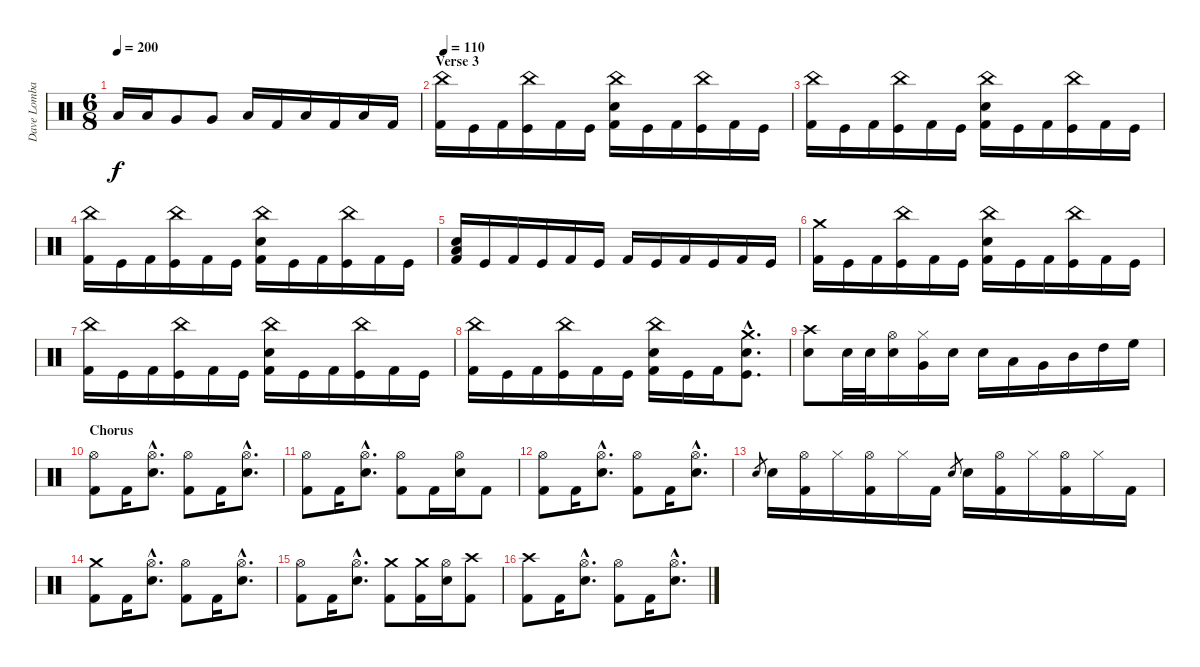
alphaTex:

\track ("Dave Lombardo (drums)" "Dave Lomba") {instrument percussion}
\staff {score}
\articulation defaults
\ts (6 8)
\tempo 200
\clef neutral
\ks c "Low Tom (hit)".16{dy f} "Low Tom (hit)".16 "Very Low Tom (hit)".8 "Very Low Tom (hit)".8 "Low Floor Tom (hit)".16 "Kick (hit) 2".16 "Low Floor Tom (hit)".16 "Kick (hit) 2".16 "Low Floor Tom (hit)".16 "Kick (hit) 2".16
|
\section ("" "Verse 3")
\tempo 110
("China (hit)" "Kick (hit) 2").16 "Kick (hit)".16 "Kick (hit) 2".16 ("China (hit)" "Kick (hit)").16 "Kick (hit) 2".16 "Kick (hit)".16 ("China (hit)" "Snare (hit) 2" "Kick (hit) 2").16 "Kick (hit)".16 "Kick (hit) 2".16 ("China (hit)" "Kick (hit)").16 "Kick (hit) 2".16 "Kick (hit)".16 |
("China (hit)" "Kick (hit) 2").16 "Kick (hit)".16 "Kick (hit) 2".16 ("China (hit)" "Kick (hit)").16 "Kick (hit) 2".16 "Kick (hit)".16 ("China (hit)" "Snare (hit) 2" "Kick (hit) 2").16 "Kick (hit)".16 "Kick (hit) 2".16 ("China (hit)" "Kick (hit)").16 "Kick (hit) 2".16 "Kick (hit)".16 |
("China (hit)" "Kick (hit) 2").16 "Kick (hit)".16 "Kick (hit) 2".16 ("China (hit)" "Kick (hit)").16 "Kick (hit) 2".16 "Kick (hit)".16 ("China (hit)" "Snare (hit) 2" "Kick (hit) 2").16 "Kick (hit)".16 "Kick (hit) 2".16 ("China (hit)" "Kick (hit)").16 "Kick (hit) 2".16 "Kick (hit)".16 |
("Snare (hit) 2" "Low Floor Tom (hit)" "Kick (hit) 2").16 "Kick (hit)".16 "Kick (hit) 2".16 "Kick (hit)".16 "Kick (hit) 2".16 "Kick (hit)".16 "Kick (hit) 2".16 "Kick (hit)".16 "Kick (hit) 2".16 "Kick (hit)".16 "Kick (hit) 2".16 "Kick (hit)".16 |
("Crash medium (hit)" "Kick (hit) 2").16 "Kick (hit)".16 "Kick (hit) 2".16 ("China (hit)" "Kick (hit)").16 "Kick (hit) 2".16 "Kick (hit)".16 ("China (hit)" "Snare (hit) 2" "Kick (hit) 2").16 "Kick (hit)".16 "Kick (hit) 2".16 ("China (hit)" "Kick (hit)").16 "Kick (hit) 2".16 "Kick (hit)".16 |
("China (hit)" "Kick (hit) 2").16 "Kick (hit)".16 "Kick (hit) 2".16 ("China (hit)" "Kick (hit)").16 "Kick (hit) 2".16 "Kick (hit)".16 ("China (hit)" "Snare (hit) 2" "Kick (hit) 2").16 "Kick (hit)".16 "Kick (hit) 2".16 ("China (hit)" "Kick (hit)").16 "Kick (hit) 2".16 "Kick (hit)".16 |
("China (hit)" "Kick (hit) 2").16 "Kick (hit)".16 "Kick (hit) 2".16 ("China (hit)" "Kick (hit)").16 "Kick (hit) 2".16 "Kick (hit)".16 ("China (hit)" "Snare (hit) 2" "Kick (hit) 2").16 "Kick (hit)".16 "Kick (hit) 2".16 ("Crash medium (hit)"{hac} "Snare (hit) 2"{hac} "Kick (hit)"{hac}).8{d} |
("Crash high (hit)" "Snare (hit) 2").8 "Snare (hit) 2".32 "Snare (hit) 2".32 ("Hi-Hat (open)" "Snare (hit) 2").16 ("Hi-Hat (closed)" "Very Low Tom (hit)").16 "Snare (hit) 2".16 "Snare (hit) 2".16 "Low Floor Tom (hit)".16 "Very Low Tom (hit)".16 "Mid Tom (hit)".16 "High Tom (hit)".16 "High Floor Tom (hit)".16 |
\section ("" "Chorus")
("Hi-Hat (open)" "Kick (hit) 2").8 "Kick (hit) 2".16 ("Hi-Hat (open)"{hac} "Snare (hit) 2"{hac}).8{d} ("Hi-Hat (open)" "Kick (hit) 2").8 "Kick (hit) 2".16 ("Hi-Hat (open)"{hac} "Snare (hit) 2"{hac}).8{d} |
("Hi-Hat (open)" "Kick (hit) 2").8 "Kick (hit) 2".16 ("Hi-Hat (open)"{hac} "Snare (hit) 2"{hac}).8{d} ("Hi-Hat (open)" "Kick (hit) 2").8 "Kick (hit) 2".16 ("Hi-Hat (open)" "Snare (hit) 2").16 "Kick (hit) 2".8 |
("Hi-Hat (open)" "Kick (hit) 2").8 "Kick (hit) 2".16 ("Hi-Hat (open)"{hac} "Snare (hit) 2"{hac}).8{d} ("Hi-Hat (open)" "Kick (hit) 2").8 "Kick (hit) 2".16 ("Hi-Hat (open)"{hac} "Snare (hit) 2"{hac}).8{d} |
"Snare (hit) 2".8{gr} "Snare (hit) 2".16 ("Hi-Hat (open)" "Kick (hit) 2").16 "Hi-Hat (closed)".16 ("Hi-Hat (open)" "Kick (hit) 2").16 "Hi-Hat (closed)".16 "Kick (hit) 2".16 "Snare (hit) 2".8{gr} "Snare (hit) 2".16 ("Hi-Hat (open)" "Kick (hit) 2").16 "Hi-Hat (closed)".16 ("Hi-Hat (open)" "Kick (hit) 2").16 "Hi-Hat (closed)".16 "Kick (hit) 2".16 |
("Crash medium (hit)" "Kick (hit) 2").8 "Kick (hit) 2".16 ("Hi-Hat (open)"{hac} "Snare (hit) 2"{hac}).8{d} ("Hi-Hat (open)" "Kick (hit) 2").8 "Kick (hit) 2".16 ("Hi-Hat (open)"{hac} "Snare (hit) 2"{hac}).8{d} |
("Hi-Hat (open)" "Kick (hit) 2").8 "Kick (hit) 2".16 ("Hi-Hat (open)"{hac} "Snare (hit) 2"{hac}).8{d} ("Crash medium (hit)" "Kick (hit) 2").8 ("Crash medium (hit)" "Kick (hit) 2").16 ("Hi-Hat (open)" "Snare (hit) 2").16 ("Crash high (hit)" "Kick (hit) 2").8 |
("Crash high (hit)" "Kick (hit) 2").8 "Kick (hit) 2".16 ("Hi-Hat (open)"{hac} "Snare (hit) 2"{hac}).8{d} ("Hi-Hat (open)" "Kick (hit) 2").8 "Kick (hit) 2".16 ("Hi-Hat (open)"{hac} "Snare (hit) 2"{hac}).8{d}
